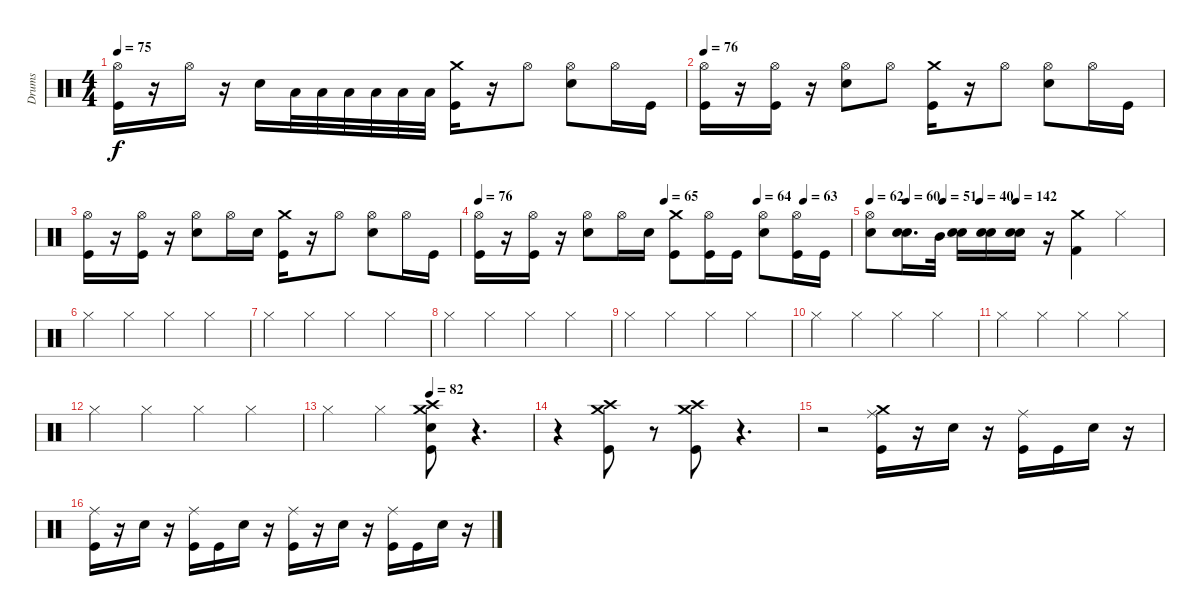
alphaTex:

\track ("Drums" "Drums") {instrument percussion}
\staff {score}
\articulation defaults
\ts (4 4)
\tempo 75
\clef neutral
\ks c
("Hi-Hat (open)" "Kick (hit)").16{dy f} r.16 "Hi-Hat (open)".16 r.16 "Electric Snare (hit)".16 "Low Tom (hit)".32 "Low Tom (hit)".32 "Low Tom (hit)".32 "Low Tom (hit)".32 "Low Tom (hit)".32 "Low Tom (hit)".32 ("Crash medium (hit)" "Kick (hit)").16 r.16 "Hi-Hat (open)".8 ("Hi-Hat (open)" "Electric Snare (hit)").8 "Hi-Hat (open)".16 "Kick (hit)".16 |
\tempo 76
("Hi-Hat (open)" "Kick (hit)").16 r.16 ("Kick (hit)" "Hi-Hat (open)").16 r.16 ("Hi-Hat (open)" "Electric Snare (hit)").8 "Hi-Hat (open)".8 ("Crash medium (hit)" "Kick (hit)").16 r.16 "Hi-Hat (open)".8 ("Hi-Hat (open)" "Electric Snare (hit)").8 "Hi-Hat (open)".16 "Kick (hit)".16 |
("Hi-Hat (open)" "Kick (hit)").16 r.16 ("Kick (hit)" "Hi-Hat (open)").16 r.16 ("Hi-Hat (open)" "Electric Snare (hit)").8 "Hi-Hat (open)".16 "Electric Snare (hit)".16 ("Crash medium (hit)" "Kick (hit)").16 r.16 "Hi-Hat (open)".8 ("Hi-Hat (open)" "Electric Snare (hit)").8 "Hi-Hat (open)".16 "Kick (hit)".16 |
\tempo 76
\tempo (65 0.5)
\tempo (64 0.75)
\tempo (63 0.875)
("Hi-Hat (open)" "Kick (hit)").16 r.16 ("Kick (hit)" "Hi-Hat (open)").16 r.16 ("Hi-Hat (open)" "Electric Snare (hit)").8 "Hi-Hat (open)".16 "Electric Snare (hit)".16 ("Crash medium (hit)" "Kick (hit)").8 ("Kick (hit)" "Hi-Hat (open)").16 "Kick (hit)".16 ("Hi-Hat (open)" "Electric Snare (hit)").8 ("Kick (hit)" "Hi-Hat (open)").16 "Kick (hit)".16 |
\tempo 62
\tempo (60 0.125)
\tempo (51 0.25)
\tempo (40 0.375)
\tempo (142 0.5)
("Electric Snare (hit)" "Hi-Hat (open)").8 ("Electric Snare (hit)" "Electric Snare (hit)").16{d} "Mid Tom (hit)".32 ("Electric Snare (hit)" "Electric Snare (hit)").16 ("Electric Snare (hit)" "Electric Snare (hit)").16 ("Electric Snare (hit)" "Electric Snare (hit)").16 r.16 ("Kick (hit) 2" "Crash medium (hit)").4{volume 14 balance 8} "Hi-Hat (closed)".4{volume 14 balance 8} |
"Hi-Hat (closed)".4 "Hi-Hat (closed)".4 "Hi-Hat (closed)".4 "Hi-Hat (closed)".4 |
"Hi-Hat (closed)".4 "Hi-Hat (closed)".4 "Hi-Hat (closed)".4 "Hi-Hat (closed)".4 |
"Hi-Hat (closed)".4 "Hi-Hat (closed)".4 "Hi-Hat (closed)".4 "Hi-Hat (closed)".4 |
"Hi-Hat (closed)".4 "Hi-Hat (closed)".4 "Hi-Hat (closed)".4 "Hi-Hat (closed)".4 |
"Hi-Hat (closed)".4 "Hi-Hat (closed)".4 "Hi-Hat (closed)".4 "Hi-Hat (closed)".4 |
"Hi-Hat (closed)".4 "Hi-Hat (closed)".4 "Hi-Hat (closed)".4 "Hi-Hat (closed)".4 |
"Hi-Hat (closed)".4 "Hi-Hat (closed)".4 "Hi-Hat (closed)".4 "Hi-Hat (closed)".4 |
\tempo (82 0.5)
"Hi-Hat (closed)".4 "Hi-Hat (closed)".4 ("Crash high (hit)" "Electric Snare (hit)" "Crash medium (hit)" "Kick (hit)").8 r.4{d} |
r.4 ("Crash high (hit)" "Crash medium (hit)" "Kick (hit)").8 r.8 ("Kick (hit)" "Crash high (hit)" "Crash medium (hit)").8 r.4{d} |
r.2 ("Crash medium (hit)" "Ride (middle)" "Kick (hit)").16 r.16 "Electric Snare (hit)".16 r.16 ("Ride (middle)" "Kick (hit)").16 "Kick (hit)".16 "Electric Snare (hit)".16 r.16 |
("Ride (middle)" "Kick (hit)").16 r.16 "Electric Snare (hit)".16 r.16 ("Ride (middle)" "Kick (hit)").16 "Kick (hit)".16 "Electric Snare (hit)".16 r.16 ("Kick (hit)" "Ride (middle)").16 r.16 "Electric Snare (hit)".16 r.16 ("Kick (hit)" "Ride (middle)").16 "Kick (hit)".16 "Electric Snare (hit)".16 r.16
